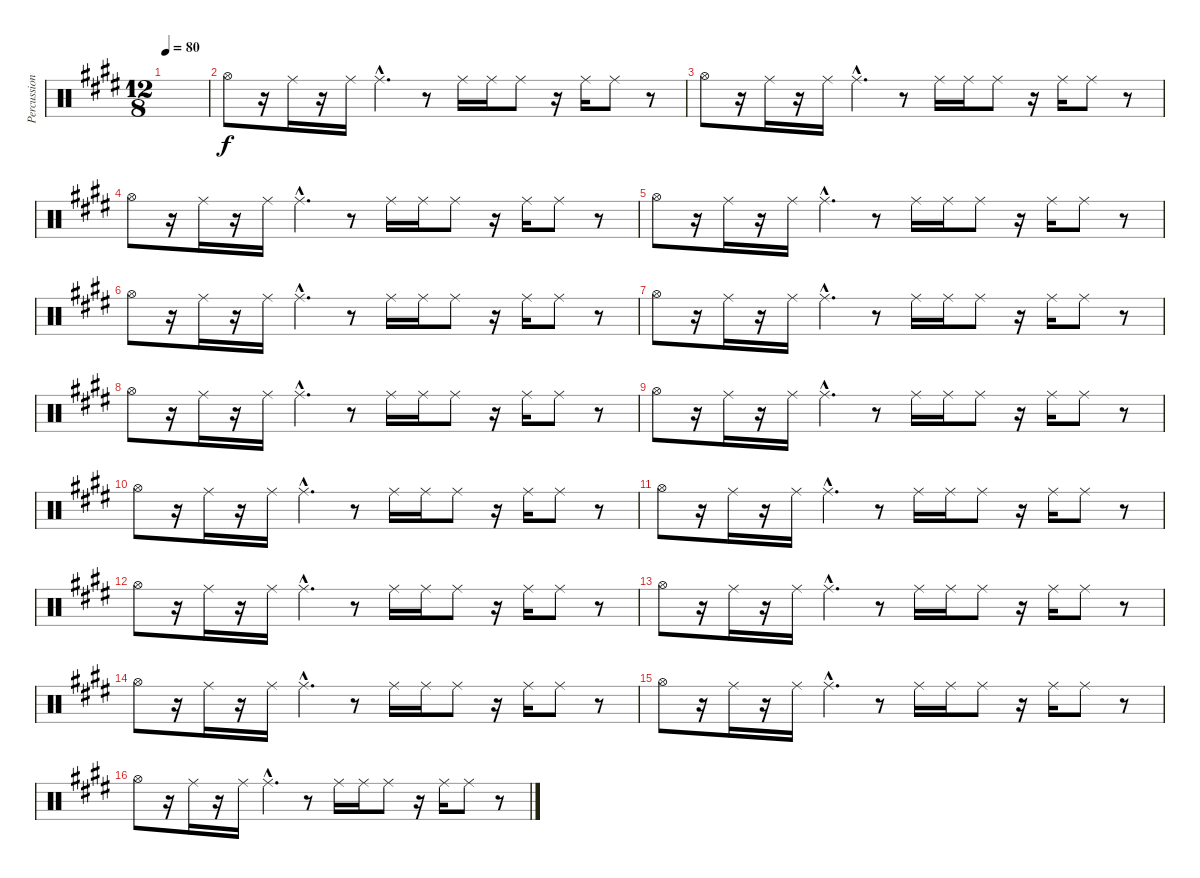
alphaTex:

\track ("Percussioni" "Percussion") {instrument percussion}
\staff {score}
\articulation defaults
\ts (12 8)
\tempo 80
\clef neutral
\ks e
|
"Hi-Hat (open)".8 r.16 "Ride (middle)".16 r.16 "Ride (middle)".16 "Ride (middle)"{hac}.4{d} r.8 "Ride (middle)".16 "Ride (middle)".16 "Ride (middle)".8 r.16 "Ride (middle)".16 "Ride (middle)".8 r.8 |
"Hi-Hat (open)".8 r.16 "Ride (middle)".16 r.16 "Ride (middle)".16 "Ride (middle)"{hac}.4{d} r.8 "Ride (middle)".16 "Ride (middle)".16 "Ride (middle)".8 r.16 "Ride (middle)".16 "Ride (middle)".8 r.8 |
"Hi-Hat (open)".8 r.16 "Ride (middle)".16 r.16 "Ride (middle)".16 "Ride (middle)"{hac}.4{d} r.8 "Ride (middle)".16 "Ride (middle)".16 "Ride (middle)".8 r.16 "Ride (middle)".16 "Ride (middle)".8 r.8 |
"Hi-Hat (open)".8 r.16 "Ride (middle)".16 r.16 "Ride (middle)".16 "Ride (middle)"{hac}.4{d} r.8 "Ride (middle)".16 "Ride (middle)".16 "Ride (middle)".8 r.16 "Ride (middle)".16 "Ride (middle)".8 r.8 |
"Hi-Hat (open)".8 r.16 "Ride (middle)".16 r.16 "Ride (middle)".16 "Ride (middle)"{hac}.4{d} r.8 "Ride (middle)".16 "Ride (middle)".16 "Ride (middle)".8 r.16 "Ride (middle)".16 "Ride (middle)".8 r.8 |
"Hi-Hat (open)".8 r.16 "Ride (middle)".16 r.16 "Ride (middle)".16 "Ride (middle)"{hac}.4{d} r.8 "Ride (middle)".16 "Ride (middle)".16 "Ride (middle)".8 r.16 "Ride (middle)".16 "Ride (middle)".8 r.8 |
"Hi-Hat (open)".8 r.16 "Ride (middle)".16 r.16 "Ride (middle)".16 "Ride (middle)"{hac}.4{d} r.8 "Ride (middle)".16 "Ride (middle)".16 "Ride (middle)".8 r.16 "Ride (middle)".16 "Ride (middle)".8 r.8 |
"Hi-Hat (open)".8 r.16 "Ride (middle)".16 r.16 "Ride (middle)".16 "Ride (middle)"{hac}.4{d} r.8 "Ride (middle)".16 "Ride (middle)".16 "Ride (middle)".8 r.16 "Ride (middle)".16 "Ride (middle)".8 r.8 |
"Hi-Hat (open)".8 r.16 "Ride (middle)".16 r.16 "Ride (middle)".16 "Ride (middle)"{hac}.4{d} r.8 "Ride (middle)".16 "Ride (middle)".16 "Ride (middle)".8 r.16 "Ride (middle)".16 "Ride (middle)".8 r.8 |
"Hi-Hat (open)".8 r.16 "Ride (middle)".16 r.16 "Ride (middle)".16 "Ride (middle)"{hac}.4{d} r.8 "Ride (middle)".16 "Ride (middle)".16 "Ride (middle)".8 r.16 "Ride (middle)".16 "Ride (middle)".8 r.8 |
"Hi-Hat (open)".8 r.16 "Ride (middle)".16 r.16 "Ride (middle)".16 "Ride (middle)"{hac}.4{d} r.8 "Ride (middle)".16 "Ride (middle)".16 "Ride (middle)".8 r.16 "Ride (middle)".16 "Ride (middle)".8 r.8 |
"Hi-Hat (open)".8 r.16 "Ride (middle)".16 r.16 "Ride (middle)".16 "Ride (middle)"{hac}.4{d} r.8 "Ride (middle)".16 "Ride (middle)".16 "Ride (middle)".8 r.16 "Ride (middle)".16 "Ride (middle)".8 r.8 |
"Hi-Hat (open)".8 r.16 "Ride (middle)".16 r.16 "Ride (middle)".16 "Ride (middle)"{hac}.4{d} r.8 "Ride (middle)".16 "Ride (middle)".16 "Ride (middle)".8 r.16 "Ride (middle)".16 "Ride (middle)".8 r.8 |
"Hi-Hat (open)".8 r.16 "Ride (middle)".16 r.16 "Ride (middle)".16 "Ride (middle)"{hac}.4{d} r.8 "Ride (middle)".16 "Ride (middle)".16 "Ride (middle)".8 r.16 "Ride (middle)".16 "Ride (middle)".8 r.8 |
"Hi-Hat (open)".8 r.16 "Ride (middle)".16 r.16 "Ride (middle)".16 "Ride (middle)"{hac}.4{d} r.8 "Ride (middle)".16 "Ride (middle)".16 "Ride (middle)".8 r.16 "Ride (middle)".16 "Ride (middle)".8 r.8
